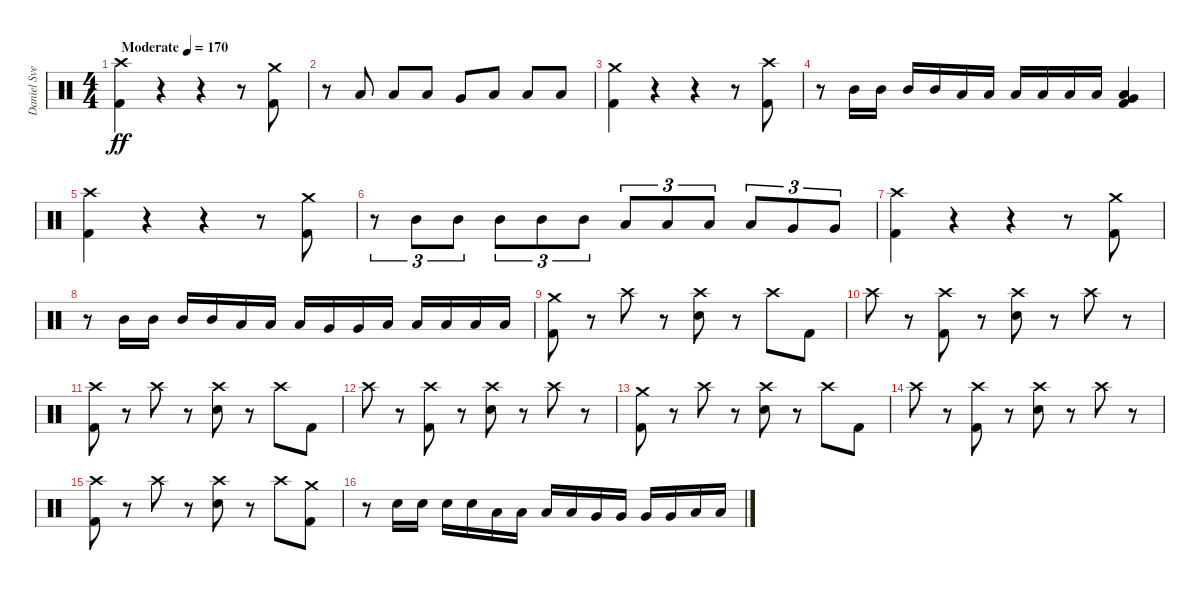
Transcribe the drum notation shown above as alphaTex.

\track ("Daniel Svensson" "Daniel Sve") {instrument percussion}
\staff {score}
\articulation defaults
\ts (4 4)
\tempo (170 "Moderate")
\clef neutral
\ks c
("Crash high (hit)" "Kick (hit) 2").4{dy ff} r.4 r.4 r.8 ("Crash medium (hit)" "Kick (hit) 2").8 |
r.8 "Low Tom (hit)".8 "Low Tom (hit)".8 "Low Floor Tom (hit)".8 "Very Low Tom (hit)".8 "Low Floor Tom (hit)".8 "Low Floor Tom (hit)".8 "Low Floor Tom (hit)".8 |
("Crash medium (hit)" "Kick (hit) 2").4 r.4 r.4 r.8 ("Crash high (hit)" "Kick (hit) 2").8 |
r.8 "Mid Tom (hit)".16 "Mid Tom (hit)".16 "Mid Tom (hit)".16 "Mid Tom (hit)".16 "Low Tom (hit)".16 "Low Tom (hit)".16 "Low Tom (hit)".16 "Low Floor Tom (hit)".16 "Low Floor Tom (hit)".16 "Low Floor Tom (hit)".16 ("Very Low Tom (hit)" "Low Floor Tom (hit)" "Kick (hit) 2").4 |
("Crash high (hit)" "Kick (hit) 2").4 r.4 r.4 r.8 ("Crash medium (hit)" "Kick (hit) 2").8 |
r.8{tu (3 2)} "Mid Tom (hit)".8{tu (3 2)} "Mid Tom (hit)".8{tu (3 2)} "Mid Tom (hit)".8{tu (3 2)} "Mid Tom (hit)".8{tu (3 2)} "Mid Tom (hit)".8{tu (3 2)} "Low Tom (hit)".8{tu (3 2)} "Low Tom (hit)".8{tu (3 2)} "Low Tom (hit)".8{tu (3 2)} "Low Tom (hit)".8{tu (3 2)} "Very Low Tom (hit)".8{tu (3 2)} "Very Low Tom (hit)".8{tu (3 2)} |
("Crash high (hit)" "Kick (hit) 2").4 r.4 r.4 r.8 ("Crash medium (hit)" "Kick (hit) 2").8 |
r.8 "Mid Tom (hit)".16 "Mid Tom (hit)".16 "Mid Tom (hit)".16 "Mid Tom (hit)".16 "Low Tom (hit)".16 "Low Tom (hit)".16 "Low Tom (hit)".16 "Very Low Tom (hit)".16 "Very Low Tom (hit)".16 "Low Tom (hit)".16 "Low Tom (hit)".16 "Low Floor Tom (hit)".16 "Low Floor Tom (hit)".16 "Low Floor Tom (hit)".16 |
("Crash medium (hit)" "Kick (hit) 2").8 r.8 "Crash high (hit)".8 r.8 ("Crash high (hit)" "Electric Snare (hit)").8 r.8 "Crash high (hit)".8 "Kick (hit) 2".8 |
"Crash high (hit)".8 r.8 ("Crash high (hit)" "Kick (hit) 2").8 r.8 ("Crash high (hit)" "Electric Snare (hit)").8 r.8 "Crash high (hit)".8 r.8 |
("Crash high (hit)" "Kick (hit) 2").8 r.8 "Crash high (hit)".8 r.8 ("Crash high (hit)" "Electric Snare (hit)").8 r.8 "Crash high (hit)".8 "Kick (hit) 2".8 |
"Crash high (hit)".8 r.8 ("Crash high (hit)" "Kick (hit) 2").8 r.8 ("Crash high (hit)" "Electric Snare (hit)").8 r.8 "Crash high (hit)".8 r.8 |
("Crash medium (hit)" "Kick (hit) 2").8 r.8 "Crash high (hit)".8 r.8 ("Crash high (hit)" "Electric Snare (hit)").8 r.8 "Crash high (hit)".8 "Kick (hit) 2".8 |
"Crash high (hit)".8 r.8 ("Crash high (hit)" "Kick (hit) 2").8 r.8 ("Crash high (hit)" "Electric Snare (hit)").8 r.8 "Crash high (hit)".8 r.8 |
("Crash high (hit)" "Kick (hit) 2").8 r.8 "Crash high (hit)".8 r.8 ("Crash high (hit)" "Electric Snare (hit)").8 r.8 "Crash high (hit)".8 ("Crash medium (hit)" "Kick (hit) 2").8 |
r.8 "Electric Snare (hit)".16 "Electric Snare (hit)".16 "Electric Snare (hit)".16 "Electric Snare (hit)".16 "Low Tom (hit)".16 "Low Tom (hit)".16 "Low Tom (hit)".16 "Low Tom (hit)".16 "Very Low Tom (hit)".16 "Very Low Tom (hit)".16 "Very Low Tom (hit)".16 "Very Low Tom (hit)".16 "Low Floor Tom (hit)".16 "Low Floor Tom (hit)".16
